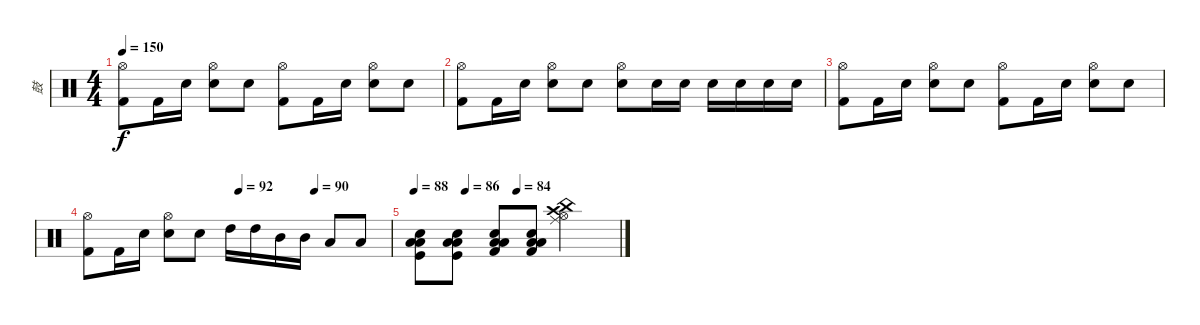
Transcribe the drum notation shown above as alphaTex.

\track ("鼓" "鼓") {instrument percussion}
\staff {score}
\articulation defaults
\ts (4 4)
\tempo 150
\clef neutral
\ks c
("Hi-Hat (open)" "Kick (hit) 2").8{dy f} "Kick (hit) 2".16 "Electric Snare (hit)".16 ("Hi-Hat (open)" "Electric Snare (hit)").8 "Electric Snare (hit)".8 ("Hi-Hat (open)" "Kick (hit) 2").8 "Kick (hit) 2".16 "Electric Snare (hit)".16 ("Hi-Hat (open)" "Electric Snare (hit)").8 "Electric Snare (hit)".8 |
("Hi-Hat (open)" "Kick (hit) 2").8 "Kick (hit) 2".16 "Electric Snare (hit)".16 ("Hi-Hat (open)" "Electric Snare (hit)").8 "Electric Snare (hit)".8 ("Hi-Hat (open)" "Electric Snare (hit)").8 "Electric Snare (hit)".16 "Electric Snare (hit)".16 "Electric Snare (hit)".16 "Electric Snare (hit)".16 "Electric Snare (hit)".16 "Electric Snare (hit)".16 |
("Hi-Hat (open)" "Kick (hit) 2").8 "Kick (hit) 2".16 "Electric Snare (hit)".16 ("Hi-Hat (open)" "Electric Snare (hit)").8 "Electric Snare (hit)".8 ("Hi-Hat (open)" "Kick (hit) 2").8 "Kick (hit) 2".16 "Electric Snare (hit)".16 ("Hi-Hat (open)" "Electric Snare (hit)").8 "Electric Snare (hit)".8 |
\tempo (92 0.5)
\tempo (90 0.75)
("Hi-Hat (open)" "Kick (hit) 2").8 "Kick (hit) 2".16 "Electric Snare (hit)".16 ("Hi-Hat (open)" "Electric Snare (hit)").8 "Electric Snare (hit)".8 "High Tom (hit)".16 "High Tom (hit)".16 "Mid Tom (hit)".16 "Mid Tom (hit)".16 "Low Tom (hit)".8 "Low Tom (hit)".8 |
\tempo 88
\tempo (86 0.25)
\tempo (84 0.5)
("Kick (hit)" "Low Tom (hit)" "Electric Snare (hit)" "Low Floor Tom (hit)").8{volume 11} ("Kick (hit)" "Low Tom (hit)" "Electric Snare (hit)" "Low Floor Tom (hit)").8 ("Kick (hit) 2" "Low Tom (hit)" "Snare (hit) 2" "Low Floor Tom (hit)").8{volume 16} ("Kick (hit) 2" "Low Tom (hit)" "Snare (hit) 2" "Low Floor Tom (hit)").8 ("Hi-Hat (open)" "Crash high (hit)" "China (hit)" "Ride (middle)").2{volume 16}
